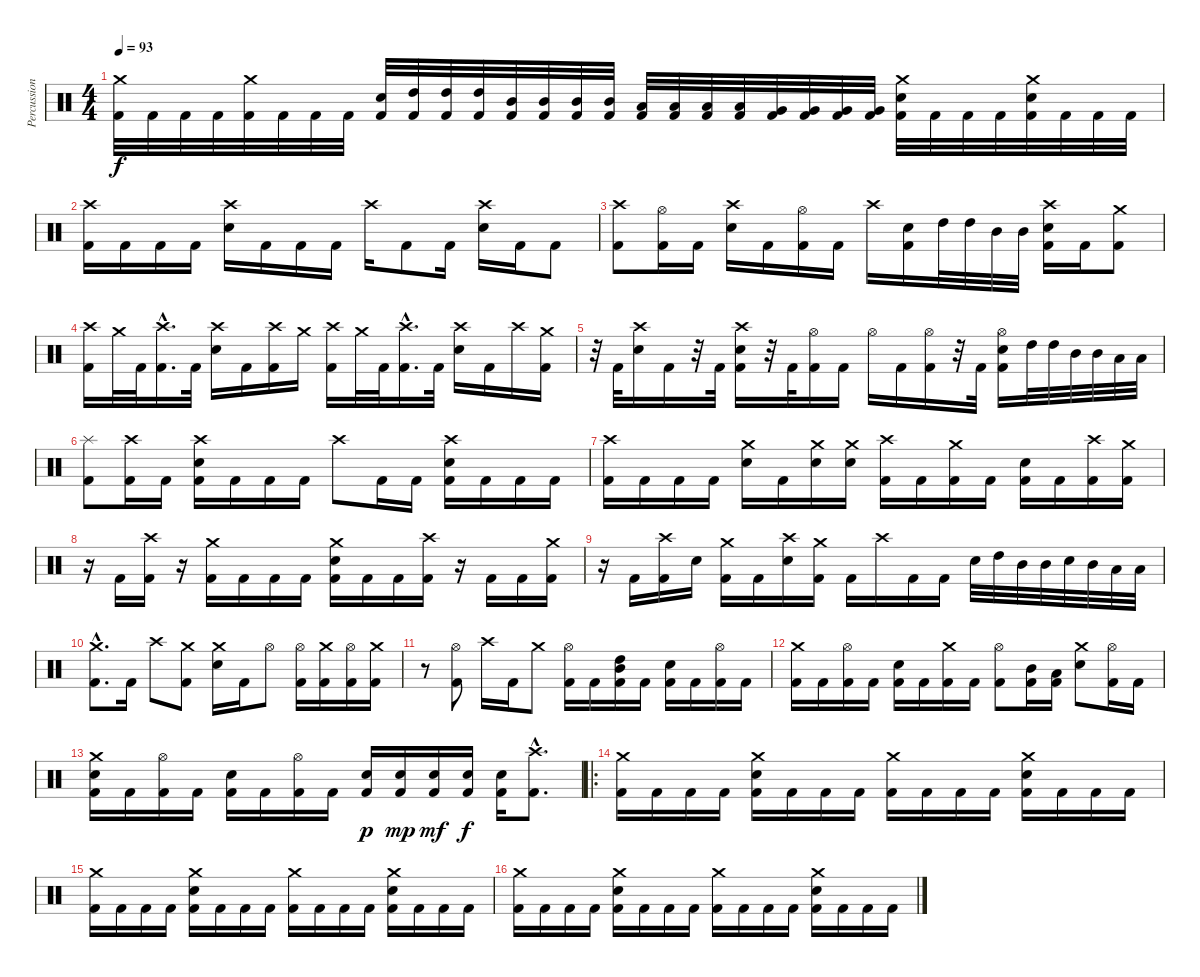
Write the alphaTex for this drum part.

\track ("Percussions" "Percussion") {instrument percussion}
\staff {score}
\articulation defaults
\ts (4 4)
\tempo 93
\clef neutral
\ks c
("Crash medium (hit)" "Kick (hit) 2").32{dy f} "Kick (hit) 2".32 "Kick (hit) 2".32 "Kick (hit) 2".32 ("Crash medium (hit)" "Kick (hit) 2").32 "Kick (hit) 2".32 "Kick (hit) 2".32 "Kick (hit) 2".32 ("Electric Snare (hit)" "Kick (hit) 2").32 ("High Tom (hit)" "Kick (hit) 2").32 ("High Tom (hit)" "Kick (hit) 2").32 ("High Tom (hit)" "Kick (hit) 2").32 ("Mid Tom (hit)" "Kick (hit) 2").32 ("Mid Tom (hit)" "Kick (hit) 2").32 ("Mid Tom (hit)" "Kick (hit) 2").32 ("Mid Tom (hit)" "Kick (hit) 2").32 ("Low Tom (hit)" "Kick (hit) 2").32 ("Low Tom (hit)" "Kick (hit) 2").32 ("Low Tom (hit)" "Kick (hit) 2").32 ("Low Tom (hit)" "Kick (hit) 2").32 ("Very Low Tom (hit)" "Kick (hit) 2").32 ("Very Low Tom (hit)" "Kick (hit) 2").32 ("Very Low Tom (hit)" "Kick (hit) 2").32 ("Very Low Tom (hit)" "Kick (hit) 2").32 ("Crash medium (hit)" "Electric Snare (hit)" "Kick (hit) 2").32 "Kick (hit) 2".32 "Kick (hit) 2".32 "Kick (hit) 2".32 ("Crash medium (hit)" "Electric Snare (hit)" "Kick (hit) 2").32 "Kick (hit) 2".32 "Kick (hit) 2".32 "Kick (hit) 2".32 |
("Crash high (hit)" "Kick (hit) 2").16 "Kick (hit) 2".16 "Kick (hit) 2".16 "Kick (hit) 2".16 ("Crash high (hit)" "Electric Snare (hit)").16 "Kick (hit) 2".16 "Kick (hit) 2".16 "Kick (hit) 2".16 "Crash high (hit)".16 "Kick (hit) 2".8 "Kick (hit) 2".16 ("Crash high (hit)" "Electric Snare (hit)").16 "Kick (hit) 2".16 "Kick (hit) 2".8 |
("Crash high (hit)" "Kick (hit) 2").8 ("Hi-Hat (open)" "Kick (hit) 2").16 "Kick (hit) 2".16 ("Crash high (hit)" "Electric Snare (hit)").16 "Kick (hit) 2".16 ("Hi-Hat (open)" "Kick (hit) 2").16 "Kick (hit) 2".16 "Crash high (hit)".16 ("Electric Snare (hit)" "Kick (hit) 2").16 "High Tom (hit)".32 "High Tom (hit)".32 "Mid Tom (hit)".32 "Mid Tom (hit)".32 ("Crash high (hit)" "Electric Snare (hit)" "Kick (hit) 2").16 "Kick (hit) 2".16 ("Crash medium (hit)" "Kick (hit) 2").8 |
("Crash high (hit)" "Kick (hit) 2").16 "Crash medium (hit)".32 "Kick (hit) 2".32 ("Crash high (hit)"{hac} "Kick (hit) 2"{hac}).16{d} "Kick (hit) 2".32 ("Crash high (hit)" "Electric Snare (hit)").16 "Kick (hit) 2".16 ("Crash high (hit)" "Kick (hit) 2").16 "Crash medium (hit)".16 ("Crash high (hit)" "Kick (hit) 2").16 "Crash medium (hit)".32 "Kick (hit) 2".32 ("Crash high (hit)"{hac} "Kick (hit) 2"{hac}).16{d} "Kick (hit) 2".32 ("Crash high (hit)" "Electric Snare (hit)").16 "Kick (hit) 2".16 "Crash high (hit)".16 ("Crash medium (hit)" "Kick (hit) 2").16 |
r.32 "Kick (hit) 2".32 ("Crash high (hit)" "Electric Snare (hit)").16 "Kick (hit) 2".16 r.32 "Kick (hit) 2".32 ("Crash high (hit)" "Electric Snare (hit)" "Kick (hit) 2").16 r.32 "Kick (hit) 2".32 ("Hi-Hat (open)" "Kick (hit) 2").16 "Kick (hit) 2".16 "Hi-Hat (open)".16 "Kick (hit) 2".16 ("Hi-Hat (open)" "Kick (hit) 2").16 r.32 "Kick (hit) 2".32 ("Hi-Hat (open)" "Electric Snare (hit)" "Kick (hit) 2").16 "High Tom (hit)".32 "High Tom (hit)".32 "Mid Tom (hit)".32 "Mid Tom (hit)".32 "Low Tom (hit)".32 "Low Tom (hit)".32 |
("Splash (hit)" "Kick (hit) 2").8 ("Crash high (hit)" "Kick (hit) 2").16 "Kick (hit) 2".16 ("Crash high (hit)" "Electric Snare (hit)" "Kick (hit) 2").16 "Kick (hit) 2".16 "Kick (hit) 2".16 "Kick (hit) 2".16 "Crash high (hit)".8 "Kick (hit) 2".16 "Kick (hit) 2".16 ("Crash high (hit)" "Electric Snare (hit)" "Kick (hit) 2").16 "Kick (hit) 2".16 "Kick (hit) 2".16 "Kick (hit) 2".16 |
("Crash high (hit)" "Kick (hit) 2").16 "Kick (hit) 2".16 "Kick (hit) 2".16 "Kick (hit) 2".16 ("Crash medium (hit)" "Electric Snare (hit)").16 "Kick (hit) 2".16 ("Crash medium (hit)" "Electric Snare (hit)").16 ("Crash medium (hit)" "Electric Snare (hit)").16 ("Crash high (hit)" "Kick (hit) 2").16 "Kick (hit) 2".16 ("Crash medium (hit)" "Kick (hit) 2").16 "Kick (hit) 2".16 ("Electric Snare (hit)" "Kick (hit) 2").16 "Kick (hit) 2".16 ("Crash high (hit)" "Kick (hit) 2").16 ("Crash medium (hit)" "Kick (hit) 2").16 |
r.16 "Kick (hit) 2".16 ("Crash high (hit)" "Kick (hit) 2").16 r.16 ("Crash medium (hit)" "Kick (hit) 2").16 "Kick (hit) 2".16 "Kick (hit) 2".16 "Kick (hit) 2".16 ("Crash medium (hit)" "Electric Snare (hit)" "Kick (hit) 2").16 "Kick (hit) 2".16 "Kick (hit) 2".16 ("Crash high (hit)" "Kick (hit) 2").16 r.16 "Kick (hit) 2".16 "Kick (hit) 2".16 ("Crash medium (hit)" "Kick (hit) 2").16 |
r.16 "Kick (hit) 2".16 ("Crash high (hit)" "Kick (hit) 2").16 "Electric Snare (hit)".16 ("Crash medium (hit)" "Kick (hit) 2").16 "Kick (hit) 2".16 ("Crash high (hit)" "Electric Snare (hit)").16 ("Crash medium (hit)" "Kick (hit) 2").16 "Kick (hit) 2".16 "Crash high (hit)".16 "Kick (hit) 2".16 "Kick (hit) 2".16 "Electric Snare (hit)".32 "High Tom (hit)".32 "Mid Tom (hit)".32 "Mid Tom (hit)".32 "Electric Snare (hit)".32 "Mid Tom (hit)".32 "Low Tom (hit)".32 "Low Tom (hit)".32 |
("Crash medium (hit)"{hac} "Kick (hit) 2"{hac}).8{d} "Kick (hit) 2".16 "Crash high (hit)".8 ("Crash medium (hit)" "Kick (hit) 2").8 ("Crash medium (hit)" "Electric Snare (hit)").16 "Kick (hit) 2".16 "Hi-Hat (open)".8 ("Hi-Hat (open)" "Kick (hit) 2").16 ("Crash medium (hit)" "Kick (hit) 2").16 ("Hi-Hat (open)" "Kick (hit) 2").16 ("Crash medium (hit)" "Kick (hit) 2").16 |
r.8 ("Hi-Hat (open)" "Kick (hit) 2").8 "Crash high (hit)".16 "Kick (hit) 2".16 "Crash medium (hit)".8 ("Hi-Hat (open)" "Kick (hit) 2").16 "Kick (hit) 2".16 ("High Tom (hit)" "Mid Tom (hit)" "Kick (hit) 2").16 "Kick (hit) 2".16 ("Electric Snare (hit)" "Kick (hit) 2").16 "Kick (hit) 2".16 ("Hi-Hat (open)" "Kick (hit) 2").16 "Kick (hit) 2".16 |
("Crash medium (hit)" "Kick (hit) 2").16 "Kick (hit) 2".16 ("Hi-Hat (open)" "Kick (hit) 2").16 "Kick (hit) 2".16 ("Electric Snare (hit)" "Kick (hit) 2").16 "Kick (hit) 2".16 ("Crash medium (hit)" "Kick (hit) 2").16 "Kick (hit) 2".16 ("Hi-Hat (open)" "Kick (hit) 2").8 ("Mid Tom (hit)" "Kick (hit) 2").16 ("Low Tom (hit)" "Kick (hit) 2").16 ("Crash medium (hit)" "Electric Snare (hit)").8 ("Hi-Hat (open)" "Kick (hit) 2").16 "Kick (hit) 2".16 |
("Crash medium (hit)" "Electric Snare (hit)" "Kick (hit) 2").16 "Kick (hit) 2".16 ("Hi-Hat (open)" "Kick (hit) 2").16 "Kick (hit) 2".16 ("Electric Snare (hit)" "Kick (hit) 2").16 "Kick (hit) 2".16 ("Hi-Hat (open)" "Kick (hit) 2").16 "Kick (hit) 2".16 ("Electric Snare (hit)" "Kick (hit) 2").16{dy p} ("Electric Snare (hit)" "Kick (hit) 2").16{dy mp} ("Electric Snare (hit)" "Kick (hit) 2").16{dy mf} ("Electric Snare (hit)" "Kick (hit) 2").16{dy f} ("Electric Snare (hit)" "Kick (hit) 2").16 ("Crash high (hit)"{hac} "Kick (hit) 2"{hac}).8{d} |
\ro
("Crash medium (hit)" "Kick (hit) 2").16 "Kick (hit) 2".16 "Kick (hit) 2".16 "Kick (hit) 2".16 ("Crash medium (hit)" "Electric Snare (hit)" "Kick (hit) 2").16 "Kick (hit) 2".16 "Kick (hit) 2".16 "Kick (hit) 2".16 ("Crash medium (hit)" "Kick (hit) 2").16 "Kick (hit) 2".16 "Kick (hit) 2".16 "Kick (hit) 2".16 ("Crash medium (hit)" "Electric Snare (hit)" "Kick (hit) 2").16 "Kick (hit) 2".16 "Kick (hit) 2".16 "Kick (hit) 2".16 |
("Crash medium (hit)" "Kick (hit) 2").16 "Kick (hit) 2".16 "Kick (hit) 2".16 "Kick (hit) 2".16 ("Crash medium (hit)" "Electric Snare (hit)" "Kick (hit) 2").16 "Kick (hit) 2".16 "Kick (hit) 2".16 "Kick (hit) 2".16 ("Crash medium (hit)" "Kick (hit) 2").16 "Kick (hit) 2".16 "Kick (hit) 2".16 "Kick (hit) 2".16 ("Crash medium (hit)" "Electric Snare (hit)" "Kick (hit) 2").16 "Kick (hit) 2".16 "Kick (hit) 2".16 "Kick (hit) 2".16 |
("Crash medium (hit)" "Kick (hit) 2").16 "Kick (hit) 2".16 "Kick (hit) 2".16 "Kick (hit) 2".16 ("Crash medium (hit)" "Electric Snare (hit)" "Kick (hit) 2").16 "Kick (hit) 2".16 "Kick (hit) 2".16 "Kick (hit) 2".16 ("Crash medium (hit)" "Kick (hit) 2").16 "Kick (hit) 2".16 "Kick (hit) 2".16 "Kick (hit) 2".16 ("Crash medium (hit)" "Electric Snare (hit)" "Kick (hit) 2").16 "Kick (hit) 2".16 "Kick (hit) 2".16 "Kick (hit) 2".16
